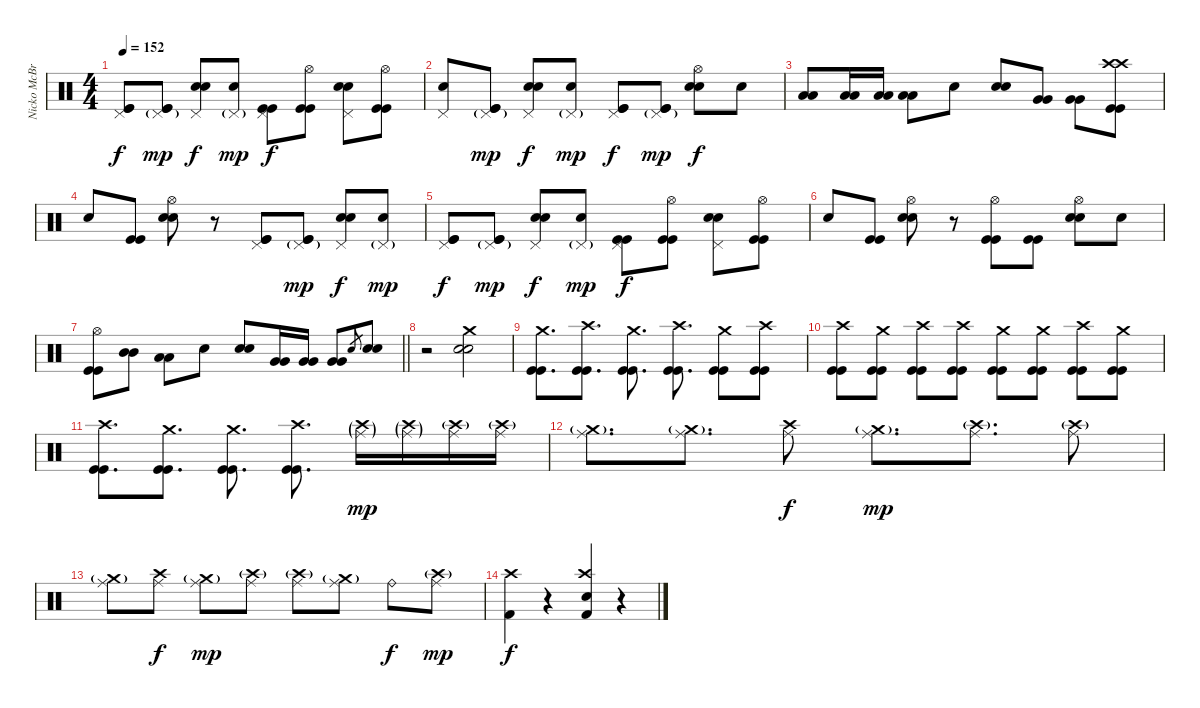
\track ("Nicko McBrain" "Nicko McBr") {instrument percussion}
\staff {score}
\articulation defaults
\ts (4 4)
\tempo 152
\clef neutral
\ks c
("Pedal Hi-Hat (hit)" "Kick (hit)" "Kick (hit)").8{dy f} ("Pedal Hi-Hat (hit)"{g} "Kick (hit)" "Kick (hit)").8{dy mp} ("Pedal Hi-Hat (hit)" "Electric Snare (hit)" "Electric Snare (hit)").8{dy f} ("Pedal Hi-Hat (hit)"{g} "Snare (hit)").8{dy mp} ("Pedal Hi-Hat (hit)" "Kick (hit)" "Kick (hit)").8{dy f} ("Hi-Hat (open)" "Kick (hit)" "Kick (hit)").8 ("Pedal Hi-Hat (hit)" "Electric Snare (hit)" "Electric Snare (hit)").8 ("Hi-Hat (open)" "Kick (hit)" "Kick (hit)").8 |
("Pedal Hi-Hat (hit)" "Snare (hit)").8 ("Pedal Hi-Hat (hit)"{g} "Kick (hit)" "Kick (hit)").8{dy mp} ("Pedal Hi-Hat (hit)" "Electric Snare (hit)" "Electric Snare (hit)").8{dy f} ("Pedal Hi-Hat (hit)"{g} "Snare (hit)").8{dy mp} ("Pedal Hi-Hat (hit)" "Kick (hit)" "Kick (hit)").8{dy f} ("Pedal Hi-Hat (hit)"{g} "Kick (hit)" "Kick (hit)").8{dy mp} ("Hi-Hat (open)" "Electric Snare (hit)" "Electric Snare (hit)").8{dy f} "Snare (hit)".8 |
("Low Tom (hit)" "Low Tom (hit)").8 ("Low Tom (hit)" "Low Tom (hit)").16 ("Low Tom (hit)" "Low Tom (hit)").16 ("Low Tom (hit)" "Low Tom (hit)").8 "Snare (hit)".8 ("Electric Snare (hit)" "Electric Snare (hit)").8 ("Very Low Tom (hit)" "Very Low Tom (hit)").8 ("Very Low Tom (hit)" "Very Low Tom (hit)").8 ("Crash high (hit)" "Crash high (hit)" "Kick (hit)" "Kick (hit)").8 |
"Snare (hit)".8 ("Kick (hit)" "Kick (hit)").8 ("Hi-Hat (open)" "Electric Snare (hit)" "Electric Snare (hit)").8 r.8 ("Pedal Hi-Hat (hit)" "Kick (hit)" "Kick (hit)").8 ("Pedal Hi-Hat (hit)"{g} "Kick (hit)" "Kick (hit)").8{dy mp} ("Pedal Hi-Hat (hit)" "Electric Snare (hit)" "Electric Snare (hit)").8{dy f} ("Pedal Hi-Hat (hit)"{g} "Snare (hit)").8{dy mp} |
("Pedal Hi-Hat (hit)" "Kick (hit)" "Kick (hit)").8{dy f} ("Pedal Hi-Hat (hit)"{g} "Kick (hit)" "Kick (hit)").8{dy mp} ("Pedal Hi-Hat (hit)" "Electric Snare (hit)" "Electric Snare (hit)").8{dy f} ("Pedal Hi-Hat (hit)"{g} "Snare (hit)").8{dy mp} ("Pedal Hi-Hat (hit)" "Kick (hit)" "Kick (hit)").8{dy f} ("Hi-Hat (open)" "Kick (hit)" "Kick (hit)").8 ("Pedal Hi-Hat (hit)" "Electric Snare (hit)" "Electric Snare (hit)").8 ("Hi-Hat (open)" "Kick (hit)" "Kick (hit)").8 |
"Snare (hit)".8 ("Kick (hit)" "Kick (hit)").8 ("Hi-Hat (open)" "Electric Snare (hit)" "Electric Snare (hit)").8 r.8 ("Hi-Hat (open)" "Kick (hit)" "Kick (hit)").8 ("Kick (hit)" "Kick (hit)").8 ("Hi-Hat (open)" "Electric Snare (hit)" "Electric Snare (hit)").8 "Snare (hit)".8 |
\barLineRight lightlight
("Hi-Hat (open)" "Kick (hit)" "Kick (hit)").8 ("Mid Tom (hit)" "Mid Tom (hit)").8 ("Low Tom (hit)" "Low Tom (hit)").8 "Snare (hit)".8 ("Electric Snare (hit)" "Electric Snare (hit)").8 ("Very Low Tom (hit)" "Very Low Tom (hit)").16 ("Very Low Tom (hit)" "Very Low Tom (hit)").16 ("Very Low Tom (hit)" "Very Low Tom (hit)").8 "Electric Snare (hit)".8{gr} ("Electric Snare (hit)" "Electric Snare (hit)").8 |
r.2 ("Crash medium (hit)" "Electric Snare (hit)" "Electric Snare (hit)").2 |
("Crash medium (hit)" "Kick (hit)" "Kick (hit)").8{d} ("Crash high (hit)" "Kick (hit)" "Kick (hit)").8{d} ("Crash medium (hit)" "Kick (hit)" "Kick (hit)").8{d} ("Crash high (hit)" "Kick (hit)" "Kick (hit)").8{d} ("Crash medium (hit)" "Kick (hit)" "Kick (hit)").8 ("Crash high (hit)" "Kick (hit)" "Kick (hit)").8 |
("Crash high (hit)" "Kick (hit)" "Kick (hit)").8 ("Crash medium (hit)" "Kick (hit)" "Kick (hit)").8 ("Crash high (hit)" "Kick (hit)" "Kick (hit)").8 ("Crash high (hit)" "Kick (hit)" "Kick (hit)").8 ("Crash medium (hit)" "Kick (hit)" "Kick (hit)").8 ("Crash medium (hit)" "Kick (hit)" "Kick (hit)").8 ("Crash high (hit)" "Kick (hit)" "Kick (hit)").8 ("Crash medium (hit)" "Kick (hit)" "Kick (hit)").8 |
("Crash high (hit)" "Kick (hit)" "Kick (hit)").8{d} ("Crash medium (hit)" "Kick (hit)" "Kick (hit)").8{d} ("Crash medium (hit)" "Kick (hit)" "Kick (hit)").8{d} ("Crash high (hit)" "Kick (hit)" "Kick (hit)").8{d} ("Crash high (hit)"{g} "Ride (middle)"{g}).16{dy mp} ("Crash high (hit)"{g} "Ride (middle)"{g}).16 ("Crash high (hit)"{g} "Ride (middle)").16 ("Crash high (hit)"{g} "Ride (middle)").16 |
("Crash medium (hit)"{g} "Ride (middle)").8{d} ("Crash medium (hit)"{g} "Ride (middle)").8{d} ("Crash high (hit)" "Ride (middle)").8{dy f} ("Crash medium (hit)"{g} "Ride (middle)").8{d dy mp} ("Crash high (hit)"{g} "Ride (middle)").8{d} ("Crash high (hit)"{g} "Ride (middle)").8 |
("Crash medium (hit)"{g} "Ride (middle)").8 ("Crash high (hit)" "Ride (middle)").8{dy f} ("Crash medium (hit)"{g} "Ride (middle)").8{dy mp} ("Crash high (hit)"{g} "Ride (middle)").8 ("Crash high (hit)"{g} "Ride (middle)").8 ("Crash medium (hit)"{g} "Ride (middle)").8 "Ride (bell)".8{dy f} ("Crash high (hit)"{g} "Ride (middle)").8{dy mp} |
("Crash high (hit)" "Kick (hit) 2").4{dy f} r.4 ("Crash high (hit)" "Electric Snare (hit)" "Kick (hit) 2").4 r.4
